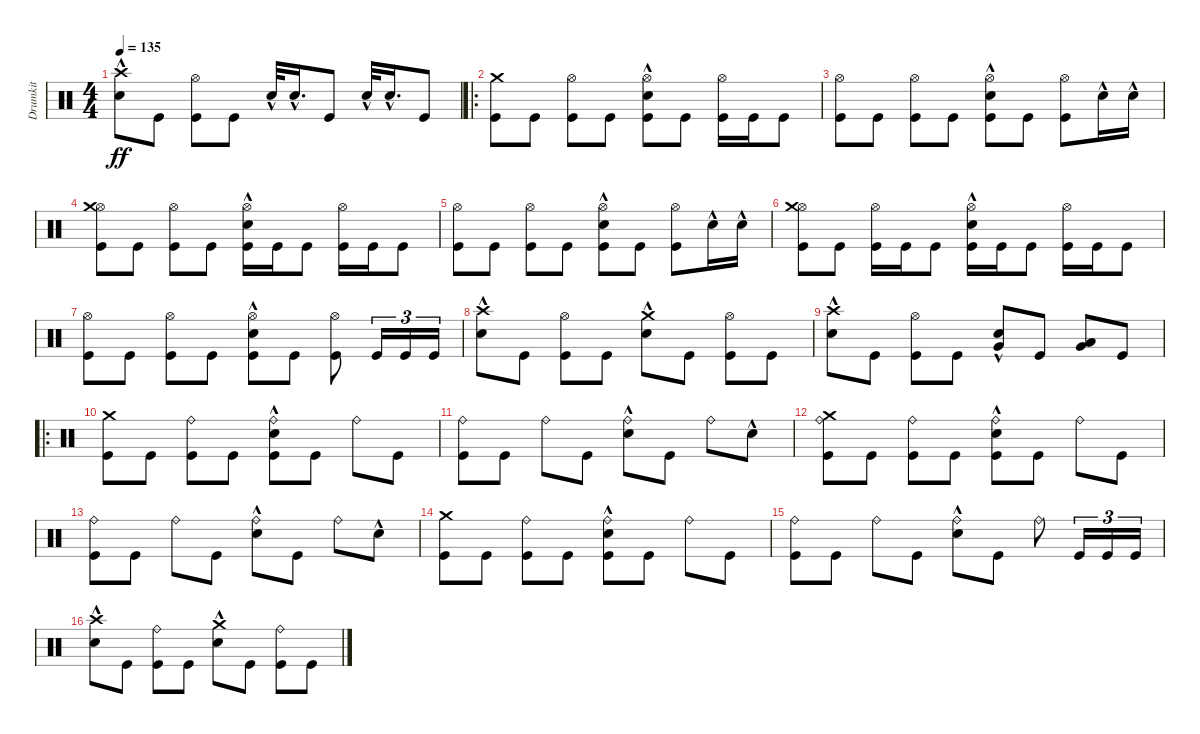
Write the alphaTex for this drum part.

\track ("Drumkit" "Drumkit") {instrument percussion}
\staff {score}
\articulation defaults
\ts (4 4)
\tempo 135
\clef neutral
\ks c
("Snare (hit) 2"{hac} "Crash high (hit)").8{dy ff} "Kick (hit)".8 ("Kick (hit)" "Hi-Hat (open)").8 "Kick (hit)".8 "Snare (hit) 2"{hac}.32 "Snare (hit) 2"{hac}.16{d} "Kick (hit)".8 "Snare (hit) 2"{hac}.32 "Snare (hit) 2"{hac}.16{d} "Kick (hit)".8 |
\ro
("Kick (hit)" "Crash medium (hit)").8 "Kick (hit)".8 ("Kick (hit)" "Hi-Hat (open)").8 "Kick (hit)".8 ("Kick (hit)" "Snare (hit) 2"{hac} "Hi-Hat (open)").8 "Kick (hit)".8 ("Kick (hit)" "Hi-Hat (open)").16 "Kick (hit)".16 "Kick (hit)".8 |
("Kick (hit)" "Hi-Hat (open)").8 "Kick (hit)".8 ("Kick (hit)" "Hi-Hat (open)").8 "Kick (hit)".8 ("Kick (hit)" "Snare (hit) 2"{hac} "Hi-Hat (open)").8 "Kick (hit)".8 ("Kick (hit)" "Hi-Hat (open)").8 "Snare (hit) 2"{hac}.16 "Snare (hit) 2"{hac}.16 |
("Kick (hit)" "Hi-Hat (open)" "Crash medium (hit)").8 "Kick (hit)".8 ("Kick (hit)" "Hi-Hat (open)").8 "Kick (hit)".8 ("Kick (hit)" "Hi-Hat (open)" "Snare (hit) 2"{hac}).16 "Kick (hit)".16 "Kick (hit)".8 ("Kick (hit)" "Hi-Hat (open)").16 "Kick (hit)".16 "Kick (hit)".8 |
("Kick (hit)" "Hi-Hat (open)").8 "Kick (hit)".8 ("Kick (hit)" "Hi-Hat (open)").8 "Kick (hit)".8 ("Kick (hit)" "Hi-Hat (open)" "Snare (hit) 2"{hac}).8 "Kick (hit)".8 ("Kick (hit)" "Hi-Hat (open)").8 "Snare (hit) 2"{hac}.16 "Snare (hit) 2"{hac}.16 |
("Kick (hit)" "Hi-Hat (open)" "Crash medium (hit)").8 "Kick (hit)".8 ("Kick (hit)" "Hi-Hat (open)").16 "Kick (hit)".16 "Kick (hit)".8 ("Kick (hit)" "Hi-Hat (open)" "Snare (hit) 2"{hac}).16 "Kick (hit)".16 "Kick (hit)".8 ("Kick (hit)" "Hi-Hat (open)").16 "Kick (hit)".16 "Kick (hit)".8 |
("Kick (hit)" "Hi-Hat (open)").8 "Kick (hit)".8 ("Kick (hit)" "Hi-Hat (open)").8 "Kick (hit)".8 ("Kick (hit)" "Hi-Hat (open)" "Snare (hit) 2"{hac}).8 "Kick (hit)".8 ("Kick (hit)" "Hi-Hat (open)").8 "Kick (hit)".16{tu (3 2)} "Kick (hit)".16{tu (3 2)} "Kick (hit)".16{tu (3 2)} |
("Snare (hit) 2"{hac} "Crash high (hit)").8 "Kick (hit)".8 ("Kick (hit)" "Hi-Hat (open)").8 "Kick (hit)".8 ("Snare (hit) 2"{hac} "Crash medium (hit)").8 "Kick (hit)".8 ("Kick (hit)" "Hi-Hat (open)").8 "Kick (hit)".8 |
("Snare (hit) 2"{hac} "Crash high (hit)").8 "Kick (hit)".8 ("Kick (hit)" "Hi-Hat (open)").8 "Kick (hit)".8 ("Snare (hit) 2"{hac} "Very Low Tom (hit)").8 "Kick (hit)".8 ("Very Low Tom (hit)" "Low Tom (hit)").8 "Kick (hit)".8 |
\ro
("Kick (hit)" "Crash medium (hit)").8 "Kick (hit)".8 ("Kick (hit)" "Ride (bell)").8 "Kick (hit)".8 ("Ride (bell)" "Snare (hit) 2"{hac} "Kick (hit)").8 "Kick (hit)".8 "Ride (bell)".8 "Kick (hit)".8 |
("Kick (hit)" "Ride (bell)").8 "Kick (hit)".8 "Ride (bell)".8 "Kick (hit)".8 ("Ride (bell)" "Snare (hit) 2"{hac}).8 "Kick (hit)".8 "Ride (bell)".8 "Snare (hit) 2"{hac}.8 |
("Kick (hit)" "Crash medium (hit)" "Ride (bell)").8 "Kick (hit)".8 ("Kick (hit)" "Ride (bell)").8 "Kick (hit)".8 ("Ride (bell)" "Snare (hit) 2"{hac} "Kick (hit)").8 "Kick (hit)".8 "Ride (bell)".8 "Kick (hit)".8 |
("Kick (hit)" "Ride (bell)").8 "Kick (hit)".8 "Ride (bell)".8 "Kick (hit)".8 ("Ride (bell)" "Snare (hit) 2"{hac}).8 "Kick (hit)".8 "Ride (bell)".8 "Snare (hit) 2"{hac}.8 |
("Kick (hit)" "Crash medium (hit)").8 "Kick (hit)".8 ("Kick (hit)" "Ride (bell)").8 "Kick (hit)".8 ("Ride (bell)" "Snare (hit) 2"{hac} "Kick (hit)").8 "Kick (hit)".8 "Ride (bell)".8 "Kick (hit)".8 |
("Kick (hit)" "Ride (bell)").8 "Kick (hit)".8 "Ride (bell)".8 "Kick (hit)".8 ("Ride (bell)" "Snare (hit) 2"{hac}).8 "Kick (hit)".8 "Ride (bell)".8 "Kick (hit)".16{tu (3 2)} "Kick (hit)".16{tu (3 2)} "Kick (hit)".16{tu (3 2)} |
("Snare (hit) 2"{hac} "Crash high (hit)").8 "Kick (hit)".8 ("Kick (hit)" "Ride (bell)").8 "Kick (hit)".8 ("Snare (hit) 2"{hac} "Crash medium (hit)").8 "Kick (hit)".8 ("Kick (hit)" "Ride (bell)").8 "Kick (hit)".8
